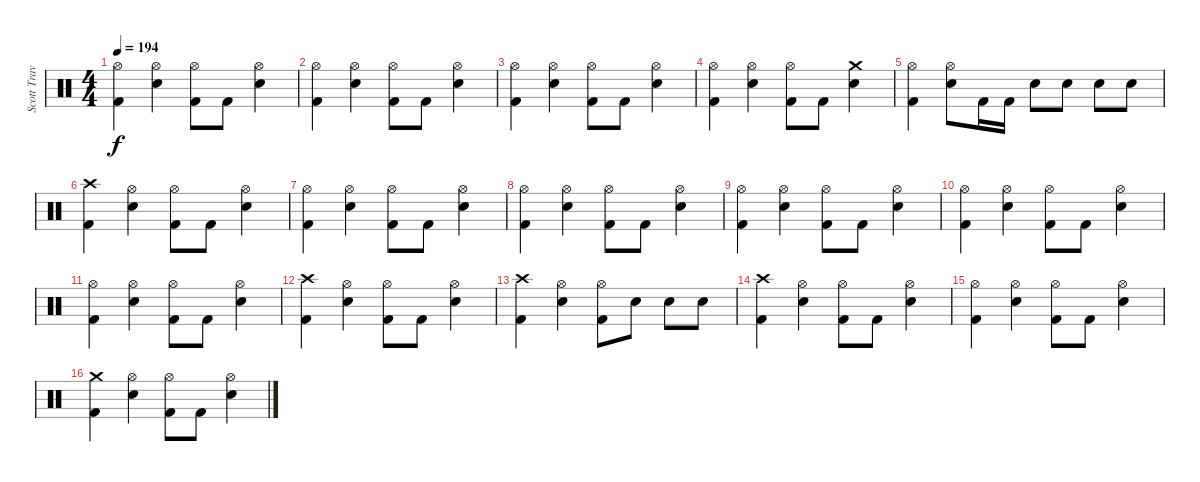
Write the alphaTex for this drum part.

\track ("Scott Travis" "Scott Trav") {instrument percussion}
\staff {score}
\articulation defaults
\ts (4 4)
\tempo 194
\clef neutral
\ks c
("Kick (hit) 2" "Hi-Hat (open)").4{dy f} ("Hi-Hat (open)" "Snare (hit) 2").4 ("Hi-Hat (open)" "Kick (hit) 2").8 "Kick (hit) 2".8 ("Snare (hit) 2" "Hi-Hat (open)").4 |
("Kick (hit) 2" "Hi-Hat (open)").4 ("Hi-Hat (open)" "Snare (hit) 2").4 ("Hi-Hat (open)" "Kick (hit) 2").8 "Kick (hit) 2".8 ("Snare (hit) 2" "Hi-Hat (open)").4 |
("Kick (hit) 2" "Hi-Hat (open)").4 ("Hi-Hat (open)" "Snare (hit) 2").4 ("Hi-Hat (open)" "Kick (hit) 2").8 "Kick (hit) 2".8 ("Snare (hit) 2" "Hi-Hat (open)").4 |
("Kick (hit) 2" "Hi-Hat (open)").4 ("Hi-Hat (open)" "Snare (hit) 2").4 ("Hi-Hat (open)" "Kick (hit) 2").8 "Kick (hit) 2".8 ("Snare (hit) 2" "Crash medium (hit)").4 |
("Kick (hit) 2" "Hi-Hat (open)").4 ("Hi-Hat (open)" "Snare (hit) 2").8 "Kick (hit) 2".16 "Kick (hit) 2".16 "Snare (hit) 2".8 "Snare (hit) 2".8 "Snare (hit) 2".8 "Snare (hit) 2".8 |
("Kick (hit) 2" "Crash high (hit)").4 ("Hi-Hat (open)" "Snare (hit) 2").4 ("Hi-Hat (open)" "Kick (hit) 2").8 "Kick (hit) 2".8 ("Snare (hit) 2" "Hi-Hat (open)").4 |
("Kick (hit) 2" "Hi-Hat (open)").4 ("Hi-Hat (open)" "Snare (hit) 2").4 ("Hi-Hat (open)" "Kick (hit) 2").8 "Kick (hit) 2".8 ("Snare (hit) 2" "Hi-Hat (open)").4 |
("Kick (hit) 2" "Hi-Hat (open)").4 ("Hi-Hat (open)" "Snare (hit) 2").4 ("Hi-Hat (open)" "Kick (hit) 2").8 "Kick (hit) 2".8 ("Snare (hit) 2" "Hi-Hat (open)").4 |
("Kick (hit) 2" "Hi-Hat (open)").4 ("Hi-Hat (open)" "Snare (hit) 2").4 ("Hi-Hat (open)" "Kick (hit) 2").8 "Kick (hit) 2".8 ("Snare (hit) 2" "Hi-Hat (open)").4 |
("Kick (hit) 2" "Hi-Hat (open)").4 ("Hi-Hat (open)" "Snare (hit) 2").4 ("Hi-Hat (open)" "Kick (hit) 2").8 "Kick (hit) 2".8 ("Snare (hit) 2" "Hi-Hat (open)").4 |
("Kick (hit) 2" "Hi-Hat (open)").4 ("Hi-Hat (open)" "Snare (hit) 2").4 ("Hi-Hat (open)" "Kick (hit) 2").8 "Kick (hit) 2".8 ("Snare (hit) 2" "Hi-Hat (open)").4 |
("Kick (hit) 2" "Crash high (hit)").4 ("Hi-Hat (open)" "Snare (hit) 2").4 ("Hi-Hat (open)" "Kick (hit) 2").8 "Kick (hit) 2".8 ("Snare (hit) 2" "Hi-Hat (open)").4 |
("Crash high (hit)" "Kick (hit) 2").4 ("Hi-Hat (open)" "Snare (hit) 2").4 ("Hi-Hat (open)" "Kick (hit) 2").8 "Snare (hit) 2".8 "Snare (hit) 2".8 "Snare (hit) 2".8 |
("Kick (hit) 2" "Crash high (hit)").4 ("Hi-Hat (open)" "Snare (hit) 2").4 ("Hi-Hat (open)" "Kick (hit) 2").8 "Kick (hit) 2".8 ("Snare (hit) 2" "Hi-Hat (open)").4 |
("Kick (hit) 2" "Hi-Hat (open)").4 ("Hi-Hat (open)" "Snare (hit) 2").4 ("Hi-Hat (open)" "Kick (hit) 2").8 "Kick (hit) 2".8 ("Snare (hit) 2" "Hi-Hat (open)").4 |
("Kick (hit) 2" "Crash medium (hit)").4 ("Hi-Hat (open)" "Snare (hit) 2").4 ("Hi-Hat (open)" "Kick (hit) 2").8 "Kick (hit) 2".8 ("Snare (hit) 2" "Hi-Hat (open)").4
